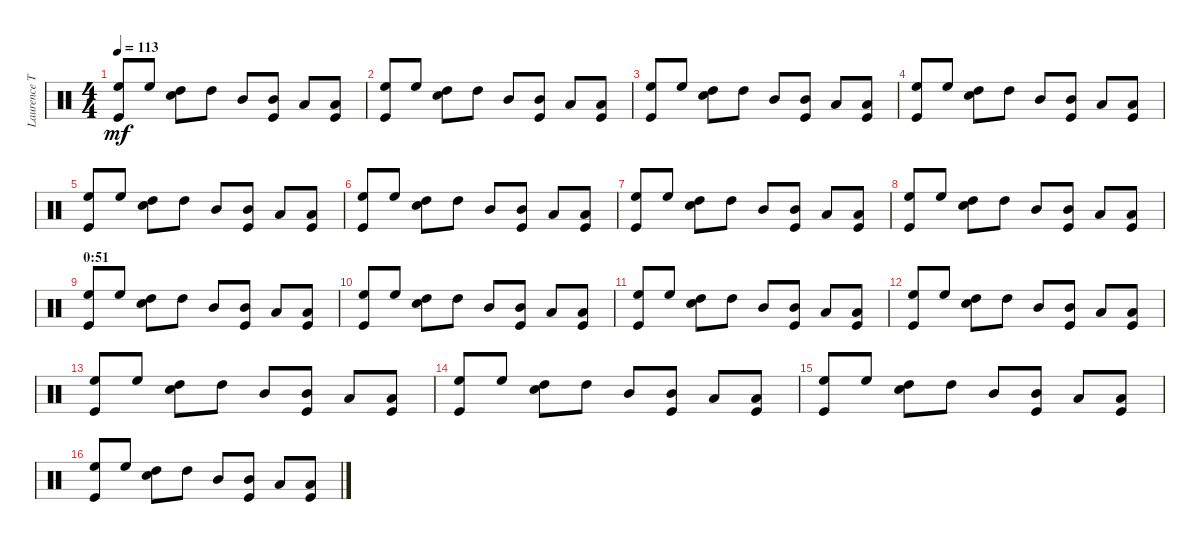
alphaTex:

\track ("Laurence Tolhurst (drums)" "Laurence T") {instrument percussion}
\staff {score}
\articulation defaults
\ts (4 4)
\tempo 113
\clef neutral
\ks c
("High Floor Tom (hit)" "Kick (hit)").8{dy mf} "High Floor Tom (hit)".8 ("High Tom (hit)" "Snare (hit) 2").8 "High Tom (hit)".8 "Mid Tom (hit)".8 ("Mid Tom (hit)" "Kick (hit)").8 "Low Tom (hit)".8 ("Low Tom (hit)" "Kick (hit)").8 |
("High Floor Tom (hit)" "Kick (hit)").8 "High Floor Tom (hit)".8 ("High Tom (hit)" "Snare (hit) 2").8 "High Tom (hit)".8 "Mid Tom (hit)".8 ("Mid Tom (hit)" "Kick (hit)").8 "Low Tom (hit)".8 ("Low Tom (hit)" "Kick (hit)").8 |
("High Floor Tom (hit)" "Kick (hit)").8 "High Floor Tom (hit)".8 ("High Tom (hit)" "Snare (hit) 2").8 "High Tom (hit)".8 "Mid Tom (hit)".8 ("Mid Tom (hit)" "Kick (hit)").8 "Low Tom (hit)".8 ("Low Tom (hit)" "Kick (hit)").8 |
("High Floor Tom (hit)" "Kick (hit)").8 "High Floor Tom (hit)".8 ("High Tom (hit)" "Snare (hit) 2").8 "High Tom (hit)".8 "Mid Tom (hit)".8 ("Mid Tom (hit)" "Kick (hit)").8 "Low Tom (hit)".8 ("Low Tom (hit)" "Kick (hit)").8 |
("High Floor Tom (hit)" "Kick (hit)").8 "High Floor Tom (hit)".8 ("High Tom (hit)" "Snare (hit) 2").8 "High Tom (hit)".8 "Mid Tom (hit)".8 ("Mid Tom (hit)" "Kick (hit)").8 "Low Tom (hit)".8 ("Low Tom (hit)" "Kick (hit)").8 |
("High Floor Tom (hit)" "Kick (hit)").8 "High Floor Tom (hit)".8 ("High Tom (hit)" "Snare (hit) 2").8 "High Tom (hit)".8 "Mid Tom (hit)".8 ("Mid Tom (hit)" "Kick (hit)").8 "Low Tom (hit)".8 ("Low Tom (hit)" "Kick (hit)").8 |
("High Floor Tom (hit)" "Kick (hit)").8 "High Floor Tom (hit)".8 ("High Tom (hit)" "Snare (hit) 2").8 "High Tom (hit)".8 "Mid Tom (hit)".8 ("Mid Tom (hit)" "Kick (hit)").8 "Low Tom (hit)".8 ("Low Tom (hit)" "Kick (hit)").8 |
("High Floor Tom (hit)" "Kick (hit)").8 "High Floor Tom (hit)".8 ("High Tom (hit)" "Snare (hit) 2").8 "High Tom (hit)".8 "Mid Tom (hit)".8 ("Mid Tom (hit)" "Kick (hit)").8 "Low Tom (hit)".8 ("Low Tom (hit)" "Kick (hit)").8 |
\section ("" "0:51")
("High Floor Tom (hit)" "Kick (hit)").8 "High Floor Tom (hit)".8 ("High Tom (hit)" "Snare (hit) 2").8 "High Tom (hit)".8 "Mid Tom (hit)".8 ("Mid Tom (hit)" "Kick (hit)").8 "Low Tom (hit)".8 ("Low Tom (hit)" "Kick (hit)").8 |
("High Floor Tom (hit)" "Kick (hit)").8 "High Floor Tom (hit)".8 ("High Tom (hit)" "Snare (hit) 2").8 "High Tom (hit)".8 "Mid Tom (hit)".8 ("Mid Tom (hit)" "Kick (hit)").8 "Low Tom (hit)".8 ("Low Tom (hit)" "Kick (hit)").8 |
("High Floor Tom (hit)" "Kick (hit)").8 "High Floor Tom (hit)".8 ("High Tom (hit)" "Snare (hit) 2").8 "High Tom (hit)".8 "Mid Tom (hit)".8 ("Mid Tom (hit)" "Kick (hit)").8 "Low Tom (hit)".8 ("Low Tom (hit)" "Kick (hit)").8 |
("High Floor Tom (hit)" "Kick (hit)").8 "High Floor Tom (hit)".8 ("High Tom (hit)" "Snare (hit) 2").8 "High Tom (hit)".8 "Mid Tom (hit)".8 ("Mid Tom (hit)" "Kick (hit)").8 "Low Tom (hit)".8 ("Low Tom (hit)" "Kick (hit)").8 |
("High Floor Tom (hit)" "Kick (hit)").8 "High Floor Tom (hit)".8 ("High Tom (hit)" "Snare (hit) 2").8 "High Tom (hit)".8 "Mid Tom (hit)".8 ("Mid Tom (hit)" "Kick (hit)").8 "Low Tom (hit)".8 ("Low Tom (hit)" "Kick (hit)").8 |
("High Floor Tom (hit)" "Kick (hit)").8 "High Floor Tom (hit)".8 ("High Tom (hit)" "Snare (hit) 2").8 "High Tom (hit)".8 "Mid Tom (hit)".8 ("Mid Tom (hit)" "Kick (hit)").8 "Low Tom (hit)".8 ("Low Tom (hit)" "Kick (hit)").8 |
("High Floor Tom (hit)" "Kick (hit)").8 "High Floor Tom (hit)".8 ("High Tom (hit)" "Snare (hit) 2").8 "High Tom (hit)".8 "Mid Tom (hit)".8 ("Mid Tom (hit)" "Kick (hit)").8 "Low Tom (hit)".8 ("Low Tom (hit)" "Kick (hit)").8 |
("High Floor Tom (hit)" "Kick (hit)").8 "High Floor Tom (hit)".8 ("High Tom (hit)" "Snare (hit) 2").8 "High Tom (hit)".8 "Mid Tom (hit)".8 ("Mid Tom (hit)" "Kick (hit)").8 "Low Tom (hit)".8 ("Low Tom (hit)" "Kick (hit)").8
